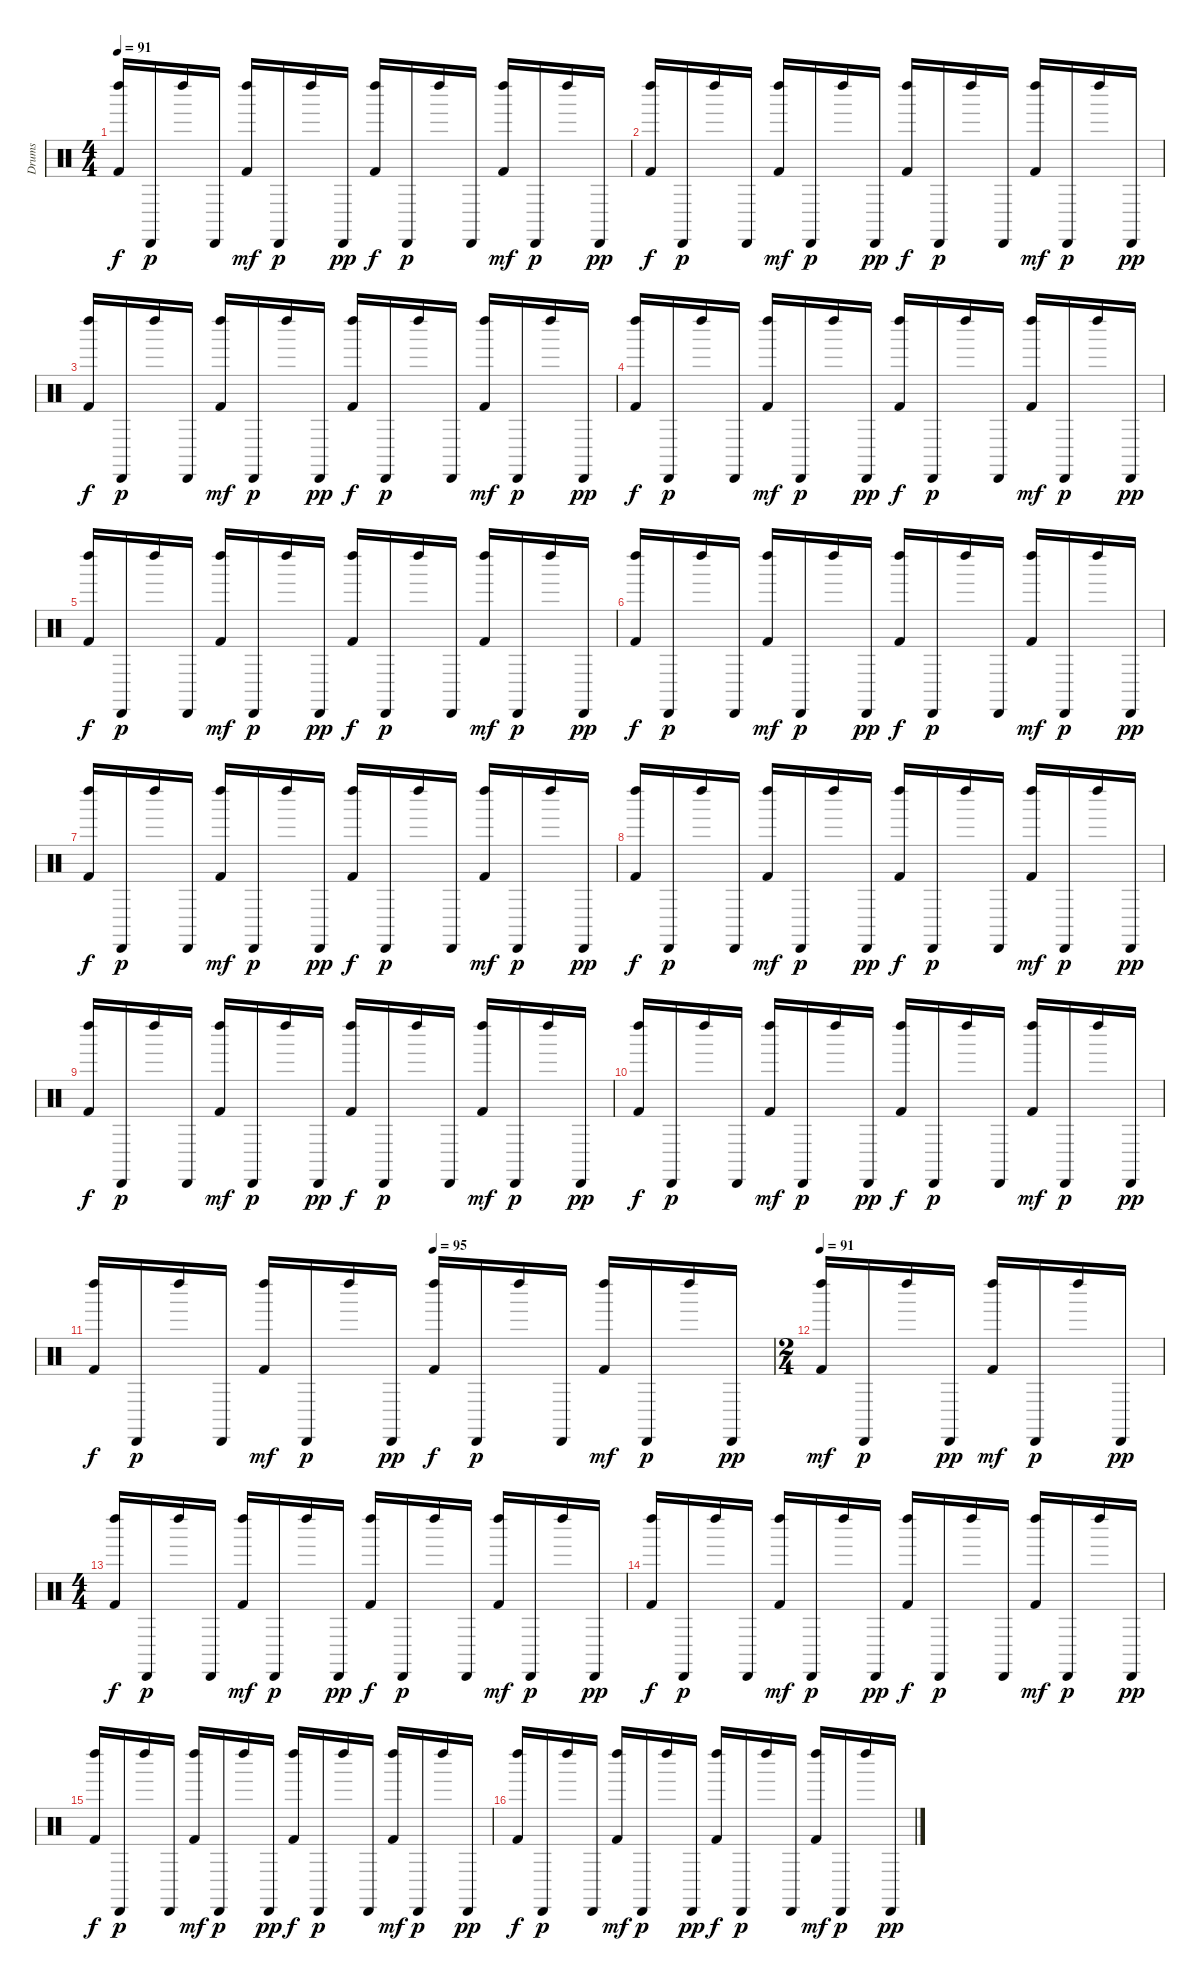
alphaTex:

\track ("Drums" "Drums") {instrument percussion}
\staff {score}
\articulation defaults
\ts (4 4)
\tempo 91
\clef neutral
\ks c
("Kick (hit) 2" "Left Maraca (hit)").16{dy f} "Cabasa (hit)".16{dy p} "Left Maraca (hit)".16 "Cabasa (hit)".16 ("Kick (hit) 2" "Left Maraca (hit)").16{dy mf} "Cabasa (hit)".16{dy p} "Left Maraca (hit)".16 "Cabasa (hit)".16{dy pp} ("Kick (hit) 2" "Left Maraca (hit)").16{dy f} "Cabasa (hit)".16{dy p} "Left Maraca (hit)".16 "Cabasa (hit)".16 ("Kick (hit) 2" "Left Maraca (hit)").16{dy mf} "Cabasa (hit)".16{dy p} "Left Maraca (hit)".16 "Cabasa (hit)".16{dy pp} |
("Kick (hit) 2" "Left Maraca (hit)").16{dy f} "Cabasa (hit)".16{dy p} "Left Maraca (hit)".16 "Cabasa (hit)".16 ("Kick (hit) 2" "Left Maraca (hit)").16{dy mf} "Cabasa (hit)".16{dy p} "Left Maraca (hit)".16 "Cabasa (hit)".16{dy pp} ("Kick (hit) 2" "Left Maraca (hit)").16{dy f} "Cabasa (hit)".16{dy p} "Left Maraca (hit)".16 "Cabasa (hit)".16 ("Kick (hit) 2" "Left Maraca (hit)").16{dy mf} "Cabasa (hit)".16{dy p} "Left Maraca (hit)".16 "Cabasa (hit)".16{dy pp} |
("Kick (hit) 2" "Left Maraca (hit)").16{dy f} "Cabasa (hit)".16{dy p} "Left Maraca (hit)".16 "Cabasa (hit)".16 ("Kick (hit) 2" "Left Maraca (hit)").16{dy mf} "Cabasa (hit)".16{dy p} "Left Maraca (hit)".16 "Cabasa (hit)".16{dy pp} ("Kick (hit) 2" "Left Maraca (hit)").16{dy f} "Cabasa (hit)".16{dy p} "Left Maraca (hit)".16 "Cabasa (hit)".16 ("Kick (hit) 2" "Left Maraca (hit)").16{dy mf} "Cabasa (hit)".16{dy p} "Left Maraca (hit)".16 "Cabasa (hit)".16{dy pp} |
("Kick (hit) 2" "Left Maraca (hit)").16{dy f} "Cabasa (hit)".16{dy p} "Left Maraca (hit)".16 "Cabasa (hit)".16 ("Kick (hit) 2" "Left Maraca (hit)").16{dy mf} "Cabasa (hit)".16{dy p} "Left Maraca (hit)".16 "Cabasa (hit)".16{dy pp} ("Kick (hit) 2" "Left Maraca (hit)").16{dy f} "Cabasa (hit)".16{dy p} "Left Maraca (hit)".16 "Cabasa (hit)".16 ("Kick (hit) 2" "Left Maraca (hit)").16{dy mf} "Cabasa (hit)".16{dy p} "Left Maraca (hit)".16 "Cabasa (hit)".16{dy pp} |
("Kick (hit) 2" "Left Maraca (hit)").16{dy f} "Cabasa (hit)".16{dy p} "Left Maraca (hit)".16 "Cabasa (hit)".16 ("Kick (hit) 2" "Left Maraca (hit)").16{dy mf} "Cabasa (hit)".16{dy p} "Left Maraca (hit)".16 "Cabasa (hit)".16{dy pp} ("Kick (hit) 2" "Left Maraca (hit)").16{dy f} "Cabasa (hit)".16{dy p} "Left Maraca (hit)".16 "Cabasa (hit)".16 ("Kick (hit) 2" "Left Maraca (hit)").16{dy mf} "Cabasa (hit)".16{dy p} "Left Maraca (hit)".16 "Cabasa (hit)".16{dy pp} |
("Kick (hit) 2" "Left Maraca (hit)").16{dy f} "Cabasa (hit)".16{dy p} "Left Maraca (hit)".16 "Cabasa (hit)".16 ("Kick (hit) 2" "Left Maraca (hit)").16{dy mf} "Cabasa (hit)".16{dy p} "Left Maraca (hit)".16 "Cabasa (hit)".16{dy pp} ("Kick (hit) 2" "Left Maraca (hit)").16{dy f} "Cabasa (hit)".16{dy p} "Left Maraca (hit)".16 "Cabasa (hit)".16 ("Kick (hit) 2" "Left Maraca (hit)").16{dy mf} "Cabasa (hit)".16{dy p} "Left Maraca (hit)".16 "Cabasa (hit)".16{dy pp} |
("Kick (hit) 2" "Left Maraca (hit)").16{dy f} "Cabasa (hit)".16{dy p} "Left Maraca (hit)".16 "Cabasa (hit)".16 ("Kick (hit) 2" "Left Maraca (hit)").16{dy mf} "Cabasa (hit)".16{dy p} "Left Maraca (hit)".16 "Cabasa (hit)".16{dy pp} ("Kick (hit) 2" "Left Maraca (hit)").16{dy f} "Cabasa (hit)".16{dy p} "Left Maraca (hit)".16 "Cabasa (hit)".16 ("Kick (hit) 2" "Left Maraca (hit)").16{dy mf} "Cabasa (hit)".16{dy p} "Left Maraca (hit)".16 "Cabasa (hit)".16{dy pp} |
("Kick (hit) 2" "Left Maraca (hit)").16{dy f} "Cabasa (hit)".16{dy p} "Left Maraca (hit)".16 "Cabasa (hit)".16 ("Kick (hit) 2" "Left Maraca (hit)").16{dy mf} "Cabasa (hit)".16{dy p} "Left Maraca (hit)".16 "Cabasa (hit)".16{dy pp} ("Kick (hit) 2" "Left Maraca (hit)").16{dy f} "Cabasa (hit)".16{dy p} "Left Maraca (hit)".16 "Cabasa (hit)".16 ("Kick (hit) 2" "Left Maraca (hit)").16{dy mf} "Cabasa (hit)".16{dy p} "Left Maraca (hit)".16 "Cabasa (hit)".16{dy pp} |
("Kick (hit) 2" "Left Maraca (hit)").16{dy f} "Cabasa (hit)".16{dy p} "Left Maraca (hit)".16 "Cabasa (hit)".16 ("Kick (hit) 2" "Left Maraca (hit)").16{dy mf} "Cabasa (hit)".16{dy p} "Left Maraca (hit)".16 "Cabasa (hit)".16{dy pp} ("Kick (hit) 2" "Left Maraca (hit)").16{dy f} "Cabasa (hit)".16{dy p} "Left Maraca (hit)".16 "Cabasa (hit)".16 ("Kick (hit) 2" "Left Maraca (hit)").16{dy mf} "Cabasa (hit)".16{dy p} "Left Maraca (hit)".16 "Cabasa (hit)".16{dy pp} |
("Kick (hit) 2" "Left Maraca (hit)").16{dy f} "Cabasa (hit)".16{dy p} "Left Maraca (hit)".16 "Cabasa (hit)".16 ("Kick (hit) 2" "Left Maraca (hit)").16{dy mf} "Cabasa (hit)".16{dy p} "Left Maraca (hit)".16 "Cabasa (hit)".16{dy pp} ("Kick (hit) 2" "Left Maraca (hit)").16{dy f} "Cabasa (hit)".16{dy p} "Left Maraca (hit)".16 "Cabasa (hit)".16 ("Kick (hit) 2" "Left Maraca (hit)").16{dy mf} "Cabasa (hit)".16{dy p} "Left Maraca (hit)".16 "Cabasa (hit)".16{dy pp} |
\tempo (95 0.5)
("Kick (hit) 2" "Left Maraca (hit)").16{dy f} "Cabasa (hit)".16{dy p} "Left Maraca (hit)".16 "Cabasa (hit)".16 ("Kick (hit) 2" "Left Maraca (hit)").16{dy mf} "Cabasa (hit)".16{dy p} "Left Maraca (hit)".16 "Cabasa (hit)".16{dy pp} ("Kick (hit) 2" "Left Maraca (hit)").16{dy f} "Cabasa (hit)".16{dy p} "Left Maraca (hit)".16 "Cabasa (hit)".16 ("Kick (hit) 2" "Left Maraca (hit)").16{dy mf} "Cabasa (hit)".16{dy p} "Left Maraca (hit)".16 "Cabasa (hit)".16{dy pp} |
\ts (2 4)
\tempo 91
("Kick (hit) 2" "Left Maraca (hit)").16{dy mf} "Cabasa (hit)".16{dy p} "Left Maraca (hit)".16 "Cabasa (hit)".16{dy pp} ("Kick (hit) 2" "Left Maraca (hit)").16{dy mf} "Cabasa (hit)".16{dy p} "Left Maraca (hit)".16 "Cabasa (hit)".16{dy pp} |
\ts (4 4)
("Kick (hit) 2" "Left Maraca (hit)").16{dy f} "Cabasa (hit)".16{dy p} "Left Maraca (hit)".16 "Cabasa (hit)".16 ("Kick (hit) 2" "Left Maraca (hit)").16{dy mf} "Cabasa (hit)".16{dy p} "Left Maraca (hit)".16 "Cabasa (hit)".16{dy pp} ("Kick (hit) 2" "Left Maraca (hit)").16{dy f} "Cabasa (hit)".16{dy p} "Left Maraca (hit)".16 "Cabasa (hit)".16 ("Kick (hit) 2" "Left Maraca (hit)").16{dy mf} "Cabasa (hit)".16{dy p} "Left Maraca (hit)".16 "Cabasa (hit)".16{dy pp} |
("Kick (hit) 2" "Left Maraca (hit)").16{dy f} "Cabasa (hit)".16{dy p} "Left Maraca (hit)".16 "Cabasa (hit)".16 ("Kick (hit) 2" "Left Maraca (hit)").16{dy mf} "Cabasa (hit)".16{dy p} "Left Maraca (hit)".16 "Cabasa (hit)".16{dy pp} ("Kick (hit) 2" "Left Maraca (hit)").16{dy f} "Cabasa (hit)".16{dy p} "Left Maraca (hit)".16 "Cabasa (hit)".16 ("Kick (hit) 2" "Left Maraca (hit)").16{dy mf} "Cabasa (hit)".16{dy p} "Left Maraca (hit)".16 "Cabasa (hit)".16{dy pp} |
("Kick (hit) 2" "Left Maraca (hit)").16{dy f} "Cabasa (hit)".16{dy p} "Left Maraca (hit)".16 "Cabasa (hit)".16 ("Kick (hit) 2" "Left Maraca (hit)").16{dy mf} "Cabasa (hit)".16{dy p} "Left Maraca (hit)".16 "Cabasa (hit)".16{dy pp} ("Kick (hit) 2" "Left Maraca (hit)").16{dy f} "Cabasa (hit)".16{dy p} "Left Maraca (hit)".16 "Cabasa (hit)".16 ("Kick (hit) 2" "Left Maraca (hit)").16{dy mf} "Cabasa (hit)".16{dy p} "Left Maraca (hit)".16 "Cabasa (hit)".16{dy pp} |
("Kick (hit) 2" "Left Maraca (hit)").16{dy f} "Cabasa (hit)".16{dy p} "Left Maraca (hit)".16 "Cabasa (hit)".16 ("Kick (hit) 2" "Left Maraca (hit)").16{dy mf} "Cabasa (hit)".16{dy p} "Left Maraca (hit)".16 "Cabasa (hit)".16{dy pp} ("Kick (hit) 2" "Left Maraca (hit)").16{dy f} "Cabasa (hit)".16{dy p} "Left Maraca (hit)".16 "Cabasa (hit)".16 ("Kick (hit) 2" "Left Maraca (hit)").16{dy mf} "Cabasa (hit)".16{dy p} "Left Maraca (hit)".16 "Cabasa (hit)".16{dy pp}
